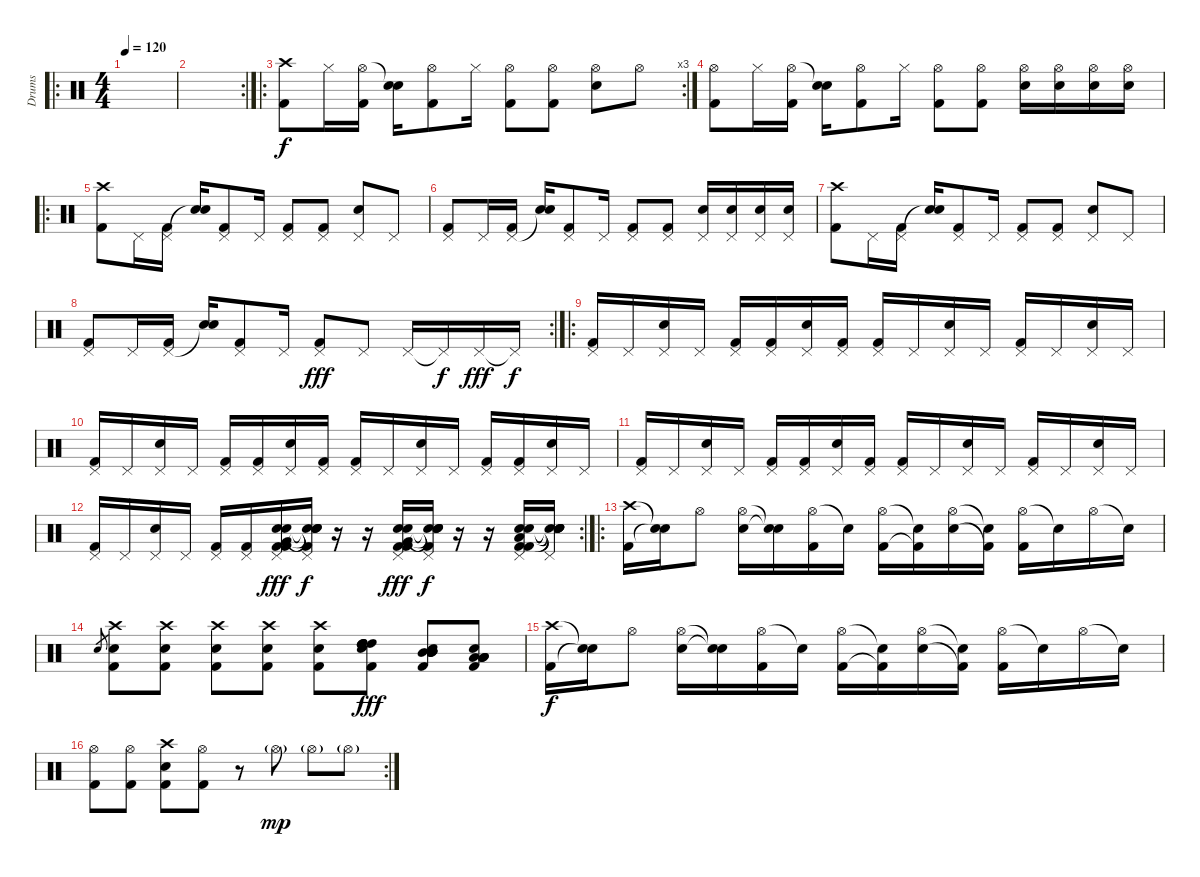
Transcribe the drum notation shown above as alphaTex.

\track ("Drums" "Drums") {instrument percussion}
\staff {score}
\articulation defaults
\ro
\ts (4 4)
\tempo 120
\clef neutral
\ks c
|
\rc 2
|
\ro
\rc 3
("Crash high (hit)" "Kick (hit) 2").8 "Hi-Hat (closed)".16 ("Hi-Hat (open)" "Kick (hit) 2").16 ("Snare (hit)"{t} "Snare (hit) 2").16 ("Hi-Hat (open)" "Kick (hit) 2").8 "Hi-Hat (closed)".16 ("Hi-Hat (open)" "Kick (hit) 2").8 ("Hi-Hat (open)" "Kick (hit) 2").8 ("Hi-Hat (open)" "Snare (hit) 2").8 "Hi-Hat (open)".8 |
("Hi-Hat (open)" "Kick (hit) 2").8 "Hi-Hat (closed)".16 ("Hi-Hat (open)" "Kick (hit) 2").16 ("Snare (hit)"{t} "Snare (hit) 2").16 ("Hi-Hat (open)" "Kick (hit) 2").8 "Hi-Hat (closed)".16 ("Hi-Hat (open)" "Kick (hit) 2").8 ("Hi-Hat (open)" "Kick (hit) 2").8 ("Hi-Hat (open)" "Snare (hit) 2").16 ("Hi-Hat (open)" "Snare (hit) 2").16 ("Hi-Hat (open)" "Snare (hit) 2").16 ("Hi-Hat (open)" "Snare (hit) 2").16 |
\ro
("Crash high (hit)" "Kick (hit) 2").8 "Pedal Hi-Hat (hit)".16 ("Pedal Hi-Hat (hit)" "Kick (hit) 2").16 ("Snare (hit)"{t} "Snare (hit) 2").16 ("Pedal Hi-Hat (hit)" "Kick (hit) 2").8 "Pedal Hi-Hat (hit)".16 ("Pedal Hi-Hat (hit)" "Kick (hit) 2").8 ("Pedal Hi-Hat (hit)" "Kick (hit) 2").8 ("Pedal Hi-Hat (hit)" "Snare (hit) 2").8 "Pedal Hi-Hat (hit)".8 |
("Pedal Hi-Hat (hit)" "Kick (hit) 2").8 "Pedal Hi-Hat (hit)".16 ("Pedal Hi-Hat (hit)" "Kick (hit) 2").16 ("Snare (hit)"{t} "Snare (hit) 2").16 ("Pedal Hi-Hat (hit)" "Kick (hit) 2").8 "Pedal Hi-Hat (hit)".16 ("Pedal Hi-Hat (hit)" "Kick (hit) 2").8 ("Pedal Hi-Hat (hit)" "Kick (hit) 2").8 ("Pedal Hi-Hat (hit)" "Snare (hit) 2").16 ("Pedal Hi-Hat (hit)" "Snare (hit) 2").16 ("Pedal Hi-Hat (hit)" "Snare (hit) 2").16 ("Pedal Hi-Hat (hit)" "Snare (hit) 2").16 |
("Crash high (hit)" "Kick (hit) 2").8 "Pedal Hi-Hat (hit)".16 ("Pedal Hi-Hat (hit)" "Kick (hit) 2").16 ("Snare (hit)"{t} "Snare (hit) 2").16 ("Pedal Hi-Hat (hit)" "Kick (hit) 2").8 "Pedal Hi-Hat (hit)".16 ("Pedal Hi-Hat (hit)" "Kick (hit) 2").8 ("Pedal Hi-Hat (hit)" "Kick (hit) 2").8 ("Pedal Hi-Hat (hit)" "Snare (hit) 2").8 "Pedal Hi-Hat (hit)".8 |
\rc 2
("Pedal Hi-Hat (hit)" "Kick (hit) 2").8 "Pedal Hi-Hat (hit)".16 ("Pedal Hi-Hat (hit)" "Kick (hit) 2").16 ("Snare (hit)"{t} "Snare (hit) 2").16 ("Pedal Hi-Hat (hit)" "Kick (hit) 2").8 "Pedal Hi-Hat (hit)".16 ("Pedal Hi-Hat (hit)" "Kick (hit) 2").8{dy fff} "Pedal Hi-Hat (hit)".8 "Pedal Hi-Hat (hit)".16 "Pedal Hi-Hat (hit)"{t}.16{dy f} "Pedal Hi-Hat (hit)".16{dy fff} "Pedal Hi-Hat (hit)"{t}.16{dy f} |
\ro
("Pedal Hi-Hat (hit)" "Kick (hit) 2").16 "Pedal Hi-Hat (hit)".16 ("Pedal Hi-Hat (hit)" "Electric Snare (hit)").16 "Pedal Hi-Hat (hit)".16 ("Pedal Hi-Hat (hit)" "Kick (hit) 2").16 ("Pedal Hi-Hat (hit)" "Kick (hit) 2").16 ("Pedal Hi-Hat (hit)" "Electric Snare (hit)").16 ("Pedal Hi-Hat (hit)" "Kick (hit) 2").16 ("Pedal Hi-Hat (hit)" "Kick (hit) 2").16 "Pedal Hi-Hat (hit)".16 ("Pedal Hi-Hat (hit)" "Electric Snare (hit)").16 "Pedal Hi-Hat (hit)".16 ("Pedal Hi-Hat (hit)" "Kick (hit) 2").16 "Pedal Hi-Hat (hit)".16 ("Pedal Hi-Hat (hit)" "Electric Snare (hit)").16 "Pedal Hi-Hat (hit)".16 |
("Pedal Hi-Hat (hit)" "Kick (hit) 2").16 "Pedal Hi-Hat (hit)".16 ("Pedal Hi-Hat (hit)" "Electric Snare (hit)").16 "Pedal Hi-Hat (hit)".16 ("Pedal Hi-Hat (hit)" "Kick (hit) 2").16 ("Pedal Hi-Hat (hit)" "Kick (hit) 2").16 ("Pedal Hi-Hat (hit)" "Electric Snare (hit)").16 ("Pedal Hi-Hat (hit)" "Kick (hit) 2").16 ("Pedal Hi-Hat (hit)" "Kick (hit) 2").16 "Pedal Hi-Hat (hit)".16 ("Pedal Hi-Hat (hit)" "Electric Snare (hit)").16 "Pedal Hi-Hat (hit)".16 ("Pedal Hi-Hat (hit)" "Kick (hit) 2").16 ("Pedal Hi-Hat (hit)" "Kick (hit) 2").16 ("Pedal Hi-Hat (hit)" "Electric Snare (hit)").16 "Pedal Hi-Hat (hit)".16 |
("Pedal Hi-Hat (hit)" "Kick (hit) 2").16 "Pedal Hi-Hat (hit)".16 ("Pedal Hi-Hat (hit)" "Electric Snare (hit)").16 "Pedal Hi-Hat (hit)".16 ("Pedal Hi-Hat (hit)" "Kick (hit) 2").16 ("Pedal Hi-Hat (hit)" "Kick (hit) 2").16 ("Pedal Hi-Hat (hit)" "Electric Snare (hit)").16 ("Pedal Hi-Hat (hit)" "Kick (hit) 2").16 ("Pedal Hi-Hat (hit)" "Kick (hit) 2").16 "Pedal Hi-Hat (hit)".16 ("Pedal Hi-Hat (hit)" "Electric Snare (hit)").16 "Pedal Hi-Hat (hit)".16 ("Pedal Hi-Hat (hit)" "Kick (hit) 2").16 "Pedal Hi-Hat (hit)".16 ("Pedal Hi-Hat (hit)" "Electric Snare (hit)").16 "Pedal Hi-Hat (hit)".16 |
\rc 2
("Pedal Hi-Hat (hit)" "Kick (hit) 2").16 "Pedal Hi-Hat (hit)".16 ("Pedal Hi-Hat (hit)" "Electric Snare (hit)").16 "Pedal Hi-Hat (hit)".16 ("Pedal Hi-Hat (hit)" "Kick (hit) 2").16 ("Pedal Hi-Hat (hit)" "Kick (hit) 2").16 ("Pedal Hi-Hat (hit)" "Kick (hit) 2" "Kick (hit) 2" "Electric Snare (hit)" "Very Low Tom (hit)" "Electric Snare (hit)").16{dy fff} ("Pedal Hi-Hat (hit)" "Snare (hit)"{t} "Snare (hit)"{t} "Snare (hit)"{t} "Snare (hit)"{t} "Kick (hit) 2"{t}).16{dy f} r.16 r.16 ("Pedal Hi-Hat (hit)" "Kick (hit) 2" "Kick (hit) 2" "Electric Snare (hit)" "Very Low Tom (hit)" "Electric Snare (hit)").16{dy fff} ("Pedal Hi-Hat (hit)" "Snare (hit)"{t} "Snare (hit)"{t} "Snare (hit)"{t} "Snare (hit)"{t} "Kick (hit) 2"{t}).16{dy f} r.16 r.16 ("Pedal Hi-Hat (hit)" "Kick (hit) 2" "Kick (hit) 2" "Electric Snare (hit)" "Low Floor Tom (hit)" "Electric Snare (hit)").16 ("Pedal Hi-Hat (hit)" "Snare (hit)"{t} "Snare (hit)"{t} "Snare (hit)"{t} "Snare (hit)"{t} "Electric Snare (hit)"{t}).16 |
\ro
("Crash high (hit)" "Kick (hit) 2").16 ("Snare (hit)"{t} "Snare (hit)"{t}).16 "Hi-Hat (open)".8 ("Hi-Hat (open)" "Electric Snare (hit)").16 ("Snare (hit)"{t} "Snare (hit)"{t}).16 ("Hi-Hat (open)" "Kick (hit) 2").16 "Snare (hit)"{t}.16 ("Hi-Hat (open)" "Kick (hit) 2").16 ("Snare (hit)"{t} "Kick (hit) 2"{t}).16 ("Hi-Hat (open)" "Electric Snare (hit)").16 ("Snare (hit)"{t} "Kick (hit) 2"{t}).16 ("Hi-Hat (open)" "Kick (hit) 2").16 "Snare (hit)"{t}.16 "Hi-Hat (open)".16 "Snare (hit)"{t}.16 |
"Electric Snare (hit)".8{gr} ("Crash high (hit)" "Kick (hit) 2" "Electric Snare (hit)").8 ("Crash high (hit)" "Kick (hit) 2" "Electric Snare (hit)").8 ("Crash high (hit)" "Kick (hit) 2" "Electric Snare (hit)").8 ("Crash high (hit)" "Kick (hit) 2" "Electric Snare (hit)").8 ("Crash high (hit)" "Kick (hit) 2" "Electric Snare (hit)").8 ("High Tom (hit)" "High Tom (hit)" "High Tom (hit)" "High Tom (hit)" "Kick (hit) 2" "Electric Snare (hit)").8{dy fff} ("Mid Tom (hit)" "Mid Tom (hit)" "Mid Tom (hit)" "Mid Tom (hit)" "Kick (hit) 2" "Electric Snare (hit)").8 ("Low Tom (hit)" "Low Tom (hit)" "Low Tom (hit)" "Low Tom (hit)" "Kick (hit) 2" "Electric Snare (hit)").8 |
("Crash high (hit)" "Kick (hit) 2").16{dy f} ("Snare (hit)"{t} "Snare (hit)"{t}).16 "Hi-Hat (open)".8 ("Hi-Hat (open)" "Electric Snare (hit)").16 ("Snare (hit)"{t} "Snare (hit)"{t}).16 ("Hi-Hat (open)" "Kick (hit) 2").16 "Snare (hit)"{t}.16 ("Hi-Hat (open)" "Kick (hit) 2").16 ("Snare (hit)"{t} "Kick (hit) 2"{t}).16 ("Hi-Hat (open)" "Electric Snare (hit)").16 ("Snare (hit)"{t} "Kick (hit) 2"{t}).16 ("Hi-Hat (open)" "Kick (hit) 2").16 "Snare (hit)"{t}.16 "Hi-Hat (open)".16 "Snare (hit)"{t}.16 |
\rc 2
("Hi-Hat (open)" "Kick (hit) 2").8 ("Hi-Hat (open)" "Kick (hit) 2").8 ("Crash high (hit)" "Kick (hit) 2" "Electric Snare (hit)").8 ("Hi-Hat (open)" "Kick (hit) 2").8 r.8 "Hi-Hat (open)"{g}.8{dy mp} "Hi-Hat (open)"{g}.8 "Hi-Hat (open)"{g}.8
